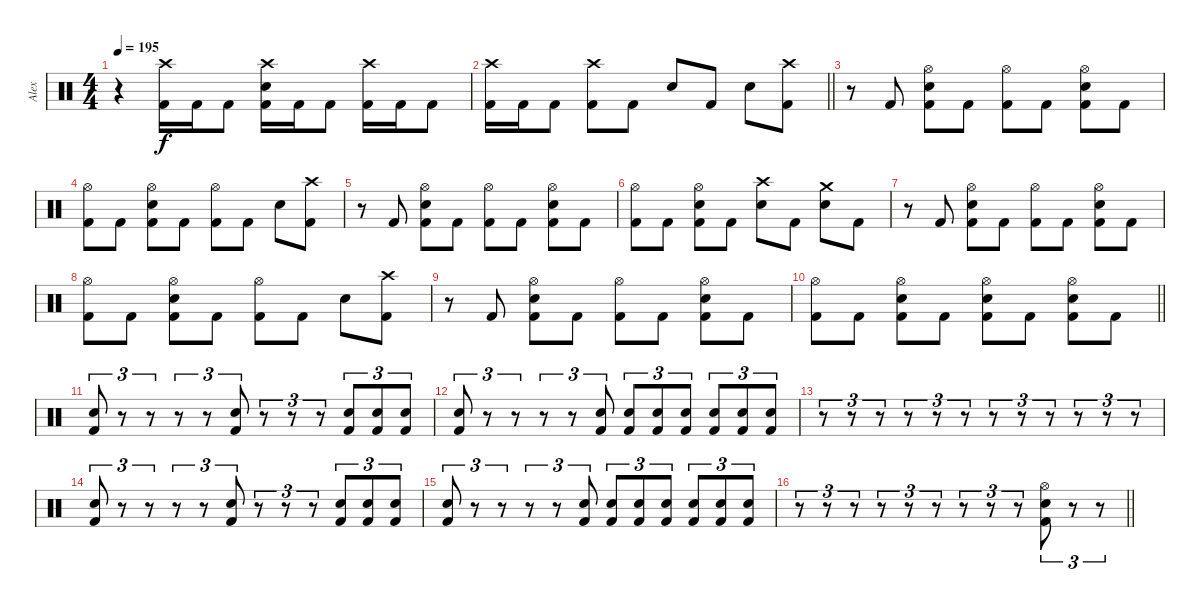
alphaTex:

\track ("Alex" "Alex") {instrument percussion}
\staff {score}
\articulation defaults
\ts (4 4)
\tempo 195
\clef neutral
\ks c
r.4{dy f} ("Crash high (hit)" "Kick (hit) 2").16 "Kick (hit) 2".16 "Kick (hit) 2".8 ("Crash high (hit)" "Electric Snare (hit)" "Kick (hit) 2").16 "Kick (hit) 2".16 "Kick (hit) 2".8 ("Crash high (hit)" "Kick (hit) 2").16 "Kick (hit) 2".16 "Kick (hit) 2".8 |
\barLineRight lightlight
("Crash high (hit)" "Kick (hit) 2").16 "Kick (hit) 2".16 "Kick (hit) 2".8 ("Crash high (hit)" "Kick (hit) 2").8 "Kick (hit) 2".8 "Electric Snare (hit)".8 "Kick (hit) 2".8 "Electric Snare (hit)".8 ("Crash high (hit)" "Kick (hit) 2").8 |
r.8 "Kick (hit) 2".8 ("Hi-Hat (open)" "Electric Snare (hit)" "Kick (hit) 2").8 "Kick (hit) 2".8 ("Hi-Hat (open)" "Kick (hit) 2").8 "Kick (hit) 2".8 ("Hi-Hat (open)" "Electric Snare (hit)" "Kick (hit) 2").8 "Kick (hit) 2".8 |
("Hi-Hat (open)" "Kick (hit) 2").8 "Kick (hit) 2".8 ("Hi-Hat (open)" "Electric Snare (hit)" "Kick (hit) 2").8 "Kick (hit) 2".8 ("Hi-Hat (open)" "Kick (hit) 2").8 "Kick (hit) 2".8 "Electric Snare (hit)".8 ("Crash high (hit)" "Kick (hit) 2").8 |
r.8 "Kick (hit) 2".8 ("Hi-Hat (open)" "Electric Snare (hit)" "Kick (hit) 2").8 "Kick (hit) 2".8 ("Hi-Hat (open)" "Kick (hit) 2").8 "Kick (hit) 2".8 ("Hi-Hat (open)" "Electric Snare (hit)" "Kick (hit) 2").8 "Kick (hit) 2".8 |
("Hi-Hat (open)" "Kick (hit) 2").8 "Kick (hit) 2".8 ("Hi-Hat (open)" "Electric Snare (hit)" "Kick (hit) 2").8 "Kick (hit) 2".8 ("Crash high (hit)" "Electric Snare (hit)").8 "Kick (hit) 2".8 ("Crash medium (hit)" "Electric Snare (hit)").8 "Kick (hit) 2".8 |
r.8 "Kick (hit) 2".8 ("Hi-Hat (open)" "Electric Snare (hit)" "Kick (hit) 2").8 "Kick (hit) 2".8 ("Hi-Hat (open)" "Kick (hit) 2").8 "Kick (hit) 2".8 ("Hi-Hat (open)" "Electric Snare (hit)" "Kick (hit) 2").8 "Kick (hit) 2".8 |
("Hi-Hat (open)" "Kick (hit) 2").8 "Kick (hit) 2".8 ("Hi-Hat (open)" "Electric Snare (hit)" "Kick (hit) 2").8 "Kick (hit) 2".8 ("Hi-Hat (open)" "Kick (hit) 2").8 "Kick (hit) 2".8 "Electric Snare (hit)".8 ("Crash high (hit)" "Kick (hit) 2").8 |
r.8 "Kick (hit) 2".8 ("Hi-Hat (open)" "Electric Snare (hit)" "Kick (hit) 2").8 "Kick (hit) 2".8 ("Hi-Hat (open)" "Kick (hit) 2").8 "Kick (hit) 2".8 ("Hi-Hat (open)" "Electric Snare (hit)" "Kick (hit) 2").8 "Kick (hit) 2".8 |
\barLineRight lightlight
("Hi-Hat (open)" "Kick (hit) 2").8 "Kick (hit) 2".8 ("Hi-Hat (open)" "Electric Snare (hit)" "Kick (hit) 2").8 "Kick (hit) 2".8 ("Hi-Hat (open)" "Electric Snare (hit)" "Kick (hit) 2").8 "Kick (hit) 2".8 ("Hi-Hat (open)" "Electric Snare (hit)" "Kick (hit) 2").8 "Kick (hit) 2".8 |
("Electric Snare (hit)" "Kick (hit) 2").8{tu (3 2)} r.8{tu (3 2)} r.8{tu (3 2)} r.8{tu (3 2)} r.8{tu (3 2)} ("Electric Snare (hit)" "Kick (hit) 2").8{tu (3 2)} r.8{tu (3 2)} r.8{tu (3 2)} r.8{tu (3 2)} ("Electric Snare (hit)" "Kick (hit) 2").8{tu (3 2)} ("Electric Snare (hit)" "Kick (hit) 2").8{tu (3 2)} ("Electric Snare (hit)" "Kick (hit) 2").8{tu (3 2)} |
("Electric Snare (hit)" "Kick (hit) 2").8{tu (3 2)} r.8{tu (3 2)} r.8{tu (3 2)} r.8{tu (3 2)} r.8{tu (3 2)} ("Electric Snare (hit)" "Kick (hit) 2").8{tu (3 2)} ("Electric Snare (hit)" "Kick (hit) 2").8{tu (3 2)} ("Electric Snare (hit)" "Kick (hit) 2").8{tu (3 2)} ("Electric Snare (hit)" "Kick (hit) 2").8{tu (3 2)} ("Electric Snare (hit)" "Kick (hit) 2").8{tu (3 2)} ("Electric Snare (hit)" "Kick (hit) 2").8{tu (3 2)} ("Electric Snare (hit)" "Kick (hit) 2").8{tu (3 2)} |
r.8{tu (3 2)} r.8{tu (3 2)} r.8{tu (3 2)} r.8{tu (3 2)} r.8{tu (3 2)} r.8{tu (3 2)} r.8{tu (3 2)} r.8{tu (3 2)} r.8{tu (3 2)} r.8{tu (3 2)} r.8{tu (3 2)} r.8{tu (3 2)} |
("Electric Snare (hit)" "Kick (hit) 2").8{tu (3 2)} r.8{tu (3 2)} r.8{tu (3 2)} r.8{tu (3 2)} r.8{tu (3 2)} ("Electric Snare (hit)" "Kick (hit) 2").8{tu (3 2)} r.8{tu (3 2)} r.8{tu (3 2)} r.8{tu (3 2)} ("Electric Snare (hit)" "Kick (hit) 2").8{tu (3 2)} ("Electric Snare (hit)" "Kick (hit) 2").8{tu (3 2)} ("Electric Snare (hit)" "Kick (hit) 2").8{tu (3 2)} |
("Electric Snare (hit)" "Kick (hit) 2").8{tu (3 2)} r.8{tu (3 2)} r.8{tu (3 2)} r.8{tu (3 2)} r.8{tu (3 2)} ("Electric Snare (hit)" "Kick (hit) 2").8{tu (3 2)} ("Electric Snare (hit)" "Kick (hit) 2").8{tu (3 2)} ("Electric Snare (hit)" "Kick (hit) 2").8{tu (3 2)} ("Electric Snare (hit)" "Kick (hit) 2").8{tu (3 2)} ("Electric Snare (hit)" "Kick (hit) 2").8{tu (3 2)} ("Electric Snare (hit)" "Kick (hit) 2").8{tu (3 2)} ("Electric Snare (hit)" "Kick (hit) 2").8{tu (3 2)} |
\barLineRight lightlight
r.8{tu (3 2)} r.8{tu (3 2)} r.8{tu (3 2)} r.8{tu (3 2)} r.8{tu (3 2)} r.8{tu (3 2)} r.8{tu (3 2)} r.8{tu (3 2)} r.8{tu (3 2)} ("Hi-Hat (open)" "Electric Snare (hit)" "Kick (hit) 2").8{tu (3 2)} r.8{tu (3 2)} r.8{tu (3 2)}
